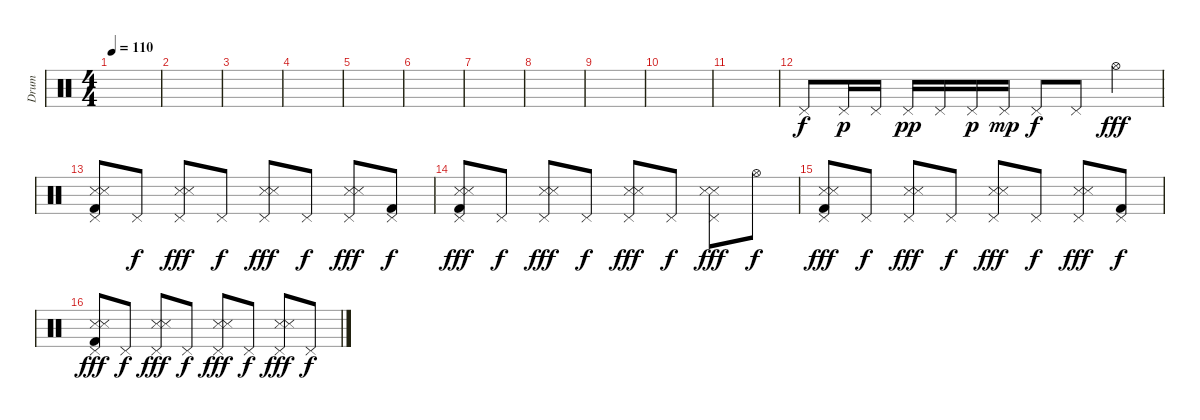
\track ("Drum" "Drum") {instrument percussion}
\staff {score}
\articulation defaults
\ts (4 4)
\tempo 110
\clef neutral
\ks c
|
|
|
|
|
|
|
|
|
|
|
"Pedal Hi-Hat (hit)".8 "Pedal Hi-Hat (hit)".16{dy p} "Pedal Hi-Hat (hit)".16 "Pedal Hi-Hat (hit)".16{dy pp} "Pedal Hi-Hat (hit)".16 "Pedal Hi-Hat (hit)".16{dy p} "Pedal Hi-Hat (hit)".16{dy mp} "Pedal Hi-Hat (hit)".8{dy f} "Pedal Hi-Hat (hit)".8 "Hi-Hat (open)".4{dy fff} |
("Pedal Hi-Hat (hit)" "Snare (side stick) 3" "Metronome (hit)" "Kick (hit) 2").8 "Pedal Hi-Hat (hit)".8{dy f} ("Pedal Hi-Hat (hit)" "Snare (side stick) 3" "Metronome (hit)").8{dy fff} "Pedal Hi-Hat (hit)".8{dy f} ("Pedal Hi-Hat (hit)" "Snare (side stick) 3" "Metronome (hit)").8{dy fff} "Pedal Hi-Hat (hit)".8{dy f} ("Pedal Hi-Hat (hit)" "Snare (side stick) 3" "Metronome (hit)").8{dy fff} ("Pedal Hi-Hat (hit)" "Kick (hit) 2").8{dy f} |
("Pedal Hi-Hat (hit)" "Snare (side stick) 3" "Metronome (hit)" "Kick (hit) 2").8{dy fff} "Pedal Hi-Hat (hit)".8{dy f} ("Pedal Hi-Hat (hit)" "Snare (side stick) 3" "Metronome (hit)").8{dy fff} "Pedal Hi-Hat (hit)".8{dy f} ("Pedal Hi-Hat (hit)" "Snare (side stick) 3" "Metronome (hit)").8{dy fff} "Pedal Hi-Hat (hit)".8{dy f} ("Pedal Hi-Hat (hit)" "Snare (side stick) 3" "Metronome (hit)").8{dy fff} "Hi-Hat (open)".8{dy f} |
("Pedal Hi-Hat (hit)" "Snare (side stick) 3" "Metronome (hit)" "Kick (hit) 2").8{dy fff} "Pedal Hi-Hat (hit)".8{dy f} ("Pedal Hi-Hat (hit)" "Snare (side stick) 3" "Metronome (hit)").8{dy fff} "Pedal Hi-Hat (hit)".8{dy f} ("Pedal Hi-Hat (hit)" "Snare (side stick) 3" "Metronome (hit)").8{dy fff} "Pedal Hi-Hat (hit)".8{dy f} ("Pedal Hi-Hat (hit)" "Snare (side stick) 3" "Metronome (hit)").8{dy fff} ("Pedal Hi-Hat (hit)" "Kick (hit) 2").8{dy f} |
("Pedal Hi-Hat (hit)" "Snare (side stick) 3" "Metronome (hit)" "Kick (hit) 2").8{dy fff} "Pedal Hi-Hat (hit)".8{dy f} ("Pedal Hi-Hat (hit)" "Snare (side stick) 3" "Metronome (hit)").8{dy fff} "Pedal Hi-Hat (hit)".8{dy f} ("Pedal Hi-Hat (hit)" "Snare (side stick) 3" "Metronome (hit)").8{dy fff} "Pedal Hi-Hat (hit)".8{dy f} ("Pedal Hi-Hat (hit)" "Snare (side stick) 3" "Metronome (hit)").8{dy fff} "Pedal Hi-Hat (hit)".8{dy f}
